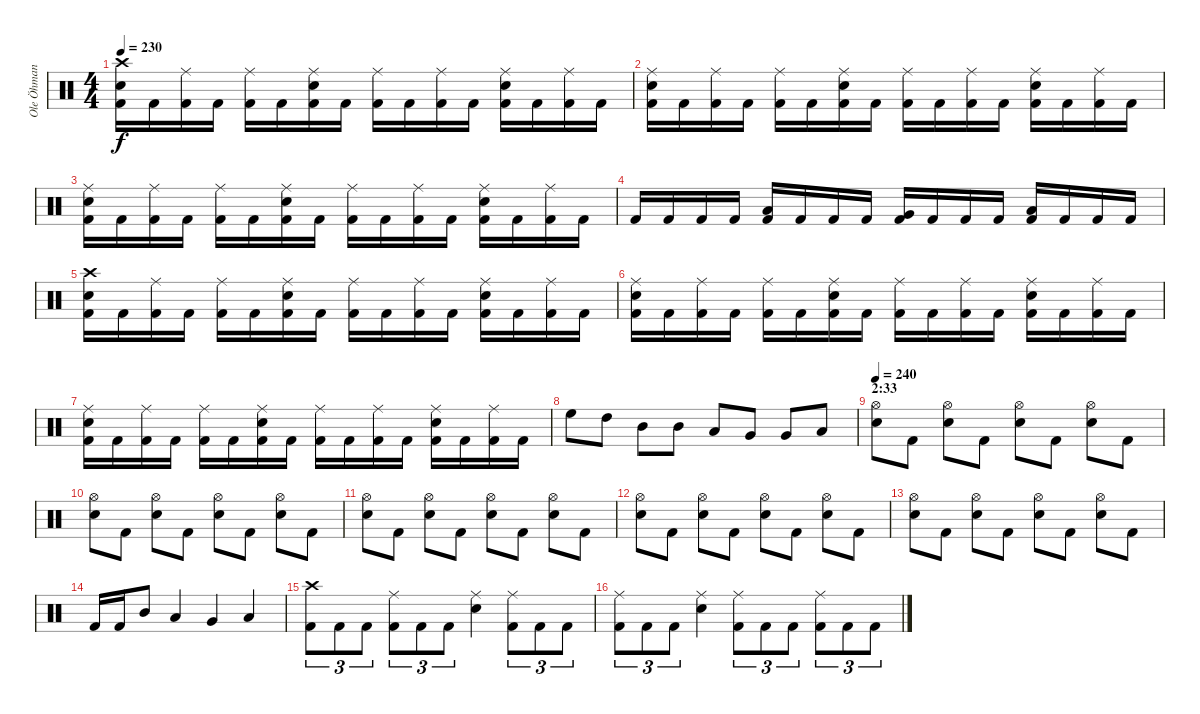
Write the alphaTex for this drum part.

\track ("Ole Öhman" "Ole Öhman") {instrument percussion}
\staff {score}
\articulation defaults
\ts (4 4)
\tempo 230
\clef neutral
\ks c
("Crash high (hit)" "Electric Snare (hit)" "Kick (hit) 2").16{dy f} "Kick (hit) 2".16 ("Ride (middle)" "Kick (hit) 2").16 "Kick (hit) 2".16 ("Ride (middle)" "Kick (hit) 2").16 "Kick (hit) 2".16 ("Ride (middle)" "Electric Snare (hit)" "Kick (hit) 2").16 "Kick (hit) 2".16 ("Ride (middle)" "Kick (hit) 2").16 "Kick (hit) 2".16 ("Ride (middle)" "Kick (hit) 2").16 "Kick (hit) 2".16 ("Ride (middle)" "Electric Snare (hit)" "Kick (hit) 2").16 "Kick (hit) 2".16 ("Ride (middle)" "Kick (hit) 2").16 "Kick (hit) 2".16 |
("Ride (middle)" "Electric Snare (hit)" "Kick (hit) 2").16 "Kick (hit) 2".16 ("Ride (middle)" "Kick (hit) 2").16 "Kick (hit) 2".16 ("Ride (middle)" "Kick (hit) 2").16 "Kick (hit) 2".16 ("Ride (middle)" "Electric Snare (hit)" "Kick (hit) 2").16 "Kick (hit) 2".16 ("Ride (middle)" "Kick (hit) 2").16 "Kick (hit) 2".16 ("Ride (middle)" "Kick (hit) 2").16 "Kick (hit) 2".16 ("Ride (middle)" "Electric Snare (hit)" "Kick (hit) 2").16 "Kick (hit) 2".16 ("Ride (middle)" "Kick (hit) 2").16 "Kick (hit) 2".16 |
("Ride (middle)" "Electric Snare (hit)" "Kick (hit) 2").16 "Kick (hit) 2".16 ("Ride (middle)" "Kick (hit) 2").16 "Kick (hit) 2".16 ("Ride (middle)" "Kick (hit) 2").16 "Kick (hit) 2".16 ("Ride (middle)" "Electric Snare (hit)" "Kick (hit) 2").16 "Kick (hit) 2".16 ("Ride (middle)" "Kick (hit) 2").16 "Kick (hit) 2".16 ("Ride (middle)" "Kick (hit) 2").16 "Kick (hit) 2".16 ("Ride (middle)" "Electric Snare (hit)" "Kick (hit) 2").16 "Kick (hit) 2".16 ("Ride (middle)" "Kick (hit) 2").16 "Kick (hit) 2".16 |
"Kick (hit) 2".16 "Kick (hit) 2".16 "Kick (hit) 2".16 "Kick (hit) 2".16 ("Low Tom (hit)" "Kick (hit) 2").16 "Kick (hit) 2".16 "Kick (hit) 2".16 "Kick (hit) 2".16 ("Very Low Tom (hit)" "Kick (hit) 2").16 "Kick (hit) 2".16 "Kick (hit) 2".16 "Kick (hit) 2".16 ("Low Floor Tom (hit)" "Kick (hit) 2").16 "Kick (hit) 2".16 "Kick (hit) 2".16 "Kick (hit) 2".16 |
("Crash high (hit)" "Electric Snare (hit)" "Kick (hit) 2").16 "Kick (hit) 2".16 ("Ride (middle)" "Kick (hit) 2").16 "Kick (hit) 2".16 ("Ride (middle)" "Kick (hit) 2").16 "Kick (hit) 2".16 ("Ride (middle)" "Electric Snare (hit)" "Kick (hit) 2").16 "Kick (hit) 2".16 ("Ride (middle)" "Kick (hit) 2").16 "Kick (hit) 2".16 ("Ride (middle)" "Kick (hit) 2").16 "Kick (hit) 2".16 ("Ride (middle)" "Electric Snare (hit)" "Kick (hit) 2").16 "Kick (hit) 2".16 ("Ride (middle)" "Kick (hit) 2").16 "Kick (hit) 2".16 |
("Ride (middle)" "Electric Snare (hit)" "Kick (hit) 2").16 "Kick (hit) 2".16 ("Ride (middle)" "Kick (hit) 2").16 "Kick (hit) 2".16 ("Ride (middle)" "Kick (hit) 2").16 "Kick (hit) 2".16 ("Ride (middle)" "Electric Snare (hit)" "Kick (hit) 2").16 "Kick (hit) 2".16 ("Ride (middle)" "Kick (hit) 2").16 "Kick (hit) 2".16 ("Ride (middle)" "Kick (hit) 2").16 "Kick (hit) 2".16 ("Ride (middle)" "Electric Snare (hit)" "Kick (hit) 2").16 "Kick (hit) 2".16 ("Ride (middle)" "Kick (hit) 2").16 "Kick (hit) 2".16 |
("Ride (middle)" "Electric Snare (hit)" "Kick (hit) 2").16 "Kick (hit) 2".16 ("Ride (middle)" "Kick (hit) 2").16 "Kick (hit) 2".16 ("Ride (middle)" "Kick (hit) 2").16 "Kick (hit) 2".16 ("Ride (middle)" "Electric Snare (hit)" "Kick (hit) 2").16 "Kick (hit) 2".16 ("Ride (middle)" "Kick (hit) 2").16 "Kick (hit) 2".16 ("Ride (middle)" "Kick (hit) 2").16 "Kick (hit) 2".16 ("Ride (middle)" "Electric Snare (hit)" "Kick (hit) 2").16 "Kick (hit) 2".16 ("Ride (middle)" "Kick (hit) 2").16 "Kick (hit) 2".16 |
"High Floor Tom (hit)".8 "High Tom (hit)".8 "Mid Tom (hit)".8 "Mid Tom (hit)".8 "Low Tom (hit)".8 "Very Low Tom (hit)".8 "Very Low Tom (hit)".8 "Low Floor Tom (hit)".8 |
\section ("" "2:33")
\tempo 240
("Hi-Hat (open)" "Electric Snare (hit)").8 "Kick (hit) 2".8 ("Hi-Hat (open)" "Electric Snare (hit)").8 "Kick (hit) 2".8 ("Hi-Hat (open)" "Electric Snare (hit)").8 "Kick (hit) 2".8 ("Hi-Hat (open)" "Electric Snare (hit)").8 "Kick (hit) 2".8 |
("Hi-Hat (open)" "Electric Snare (hit)").8 "Kick (hit) 2".8 ("Hi-Hat (open)" "Electric Snare (hit)").8 "Kick (hit) 2".8 ("Hi-Hat (open)" "Electric Snare (hit)").8 "Kick (hit) 2".8 ("Hi-Hat (open)" "Electric Snare (hit)").8 "Kick (hit) 2".8 |
("Hi-Hat (open)" "Electric Snare (hit)").8 "Kick (hit) 2".8 ("Hi-Hat (open)" "Electric Snare (hit)").8 "Kick (hit) 2".8 ("Hi-Hat (open)" "Electric Snare (hit)").8 "Kick (hit) 2".8 ("Hi-Hat (open)" "Electric Snare (hit)").8 "Kick (hit) 2".8 |
("Hi-Hat (open)" "Electric Snare (hit)").8 "Kick (hit) 2".8 ("Hi-Hat (open)" "Electric Snare (hit)").8 "Kick (hit) 2".8 ("Hi-Hat (open)" "Electric Snare (hit)").8 "Kick (hit) 2".8 ("Hi-Hat (open)" "Electric Snare (hit)").8 "Kick (hit) 2".8 |
("Hi-Hat (open)" "Electric Snare (hit)").8 "Kick (hit) 2".8 ("Hi-Hat (open)" "Electric Snare (hit)").8 "Kick (hit) 2".8 ("Hi-Hat (open)" "Electric Snare (hit)").8 "Kick (hit) 2".8 ("Hi-Hat (open)" "Electric Snare (hit)").8 "Kick (hit) 2".8 |
"Kick (hit) 2".16 "Kick (hit) 2".16 "Mid Tom (hit)".8 "Low Tom (hit)".4 "Very Low Tom (hit)".4 "Low Floor Tom (hit)".4 |
("Crash high (hit)" "Kick (hit) 2").8{tu (3 2)} "Kick (hit) 2".8{tu (3 2)} "Kick (hit) 2".8{tu (3 2)} ("Ride (middle)" "Kick (hit) 2").8{tu (3 2)} "Kick (hit) 2".8{tu (3 2)} "Kick (hit) 2".8{tu (3 2)} ("Ride (middle)" "Electric Snare (hit)").4 ("Ride (middle)" "Kick (hit) 2").8{tu (3 2)} "Kick (hit) 2".8{tu (3 2)} "Kick (hit) 2".8{tu (3 2)} |
("Ride (middle)" "Kick (hit) 2").8{tu (3 2)} "Kick (hit) 2".8{tu (3 2)} "Kick (hit) 2".8{tu (3 2)} ("Ride (middle)" "Electric Snare (hit)").4 ("Ride (middle)" "Kick (hit) 2").8{tu (3 2)} "Kick (hit) 2".8{tu (3 2)} "Kick (hit) 2".8{tu (3 2)} ("Ride (middle)" "Kick (hit) 2").8{tu (3 2)} "Kick (hit) 2".8{tu (3 2)} "Kick (hit) 2".8{tu (3 2)}
